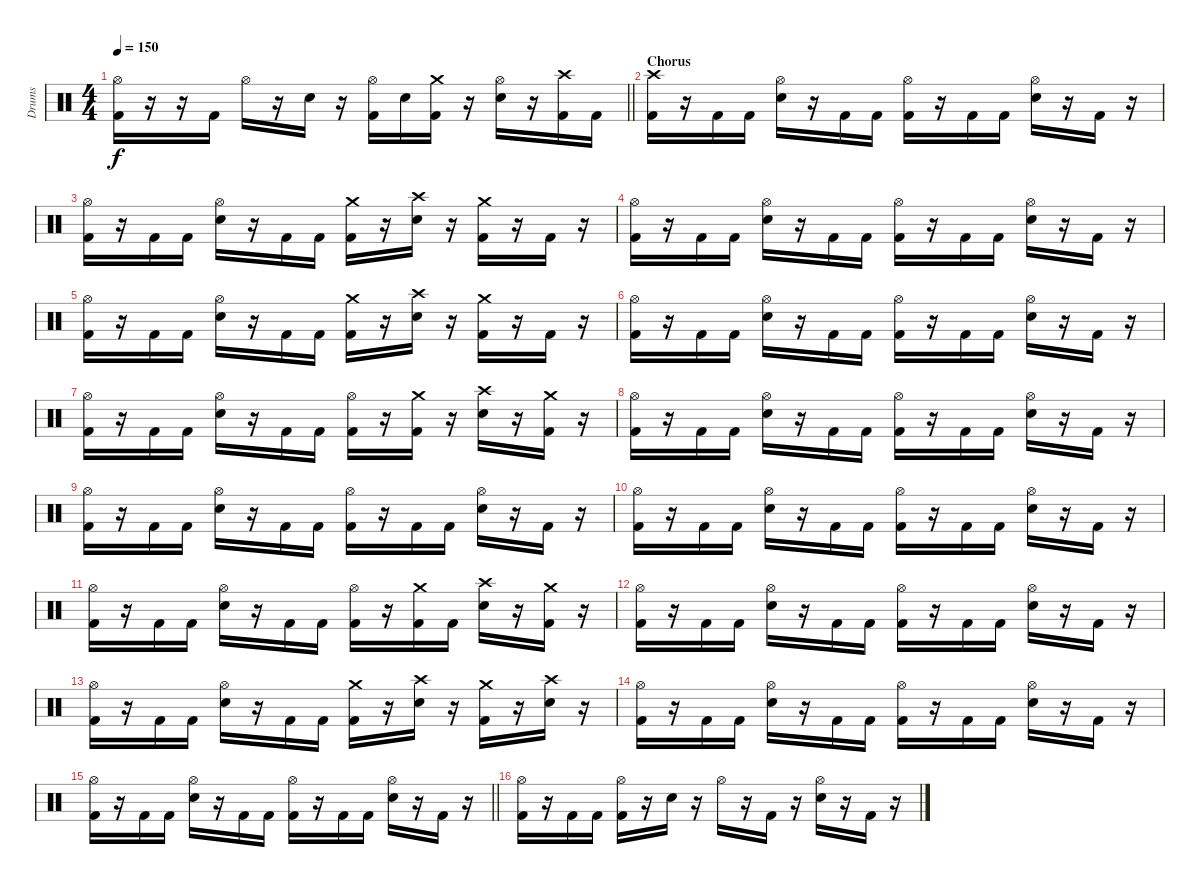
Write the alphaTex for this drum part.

\track ("Drums" "Drums") {instrument percussion}
\staff {score}
\articulation defaults
\ts (4 4)
\tempo 150
\clef neutral
\barLineRight lightlight
\ks c
("Hi-Hat (open)" "Kick (hit) 2").16{dy f} r.16 r.16 "Kick (hit) 2".16 "Hi-Hat (open)".16 r.16 "Snare (hit) 2".16 r.16 ("Hi-Hat (open)" "Kick (hit) 2").16 "Snare (hit) 2".16 ("Crash medium (hit)" "Kick (hit) 2").16 r.16 ("Hi-Hat (open)" "Snare (hit) 2").16 r.16 ("Crash high (hit)" "Kick (hit) 2").16 "Kick (hit) 2".16 |
\section ("" "Chorus")
("Crash high (hit)" "Kick (hit) 2").16 r.16 "Kick (hit) 2".16 "Kick (hit) 2".16 ("Hi-Hat (open)" "Snare (hit) 2").16 r.16 "Kick (hit) 2".16 "Kick (hit) 2".16 ("Hi-Hat (open)" "Kick (hit) 2").16 r.16 "Kick (hit) 2".16 "Kick (hit) 2".16 ("Hi-Hat (open)" "Snare (hit) 2").16 r.16 "Kick (hit) 2".16 r.16 |
("Hi-Hat (open)" "Kick (hit) 2").16 r.16 "Kick (hit) 2".16 "Kick (hit) 2".16 ("Hi-Hat (open)" "Snare (hit) 2").16 r.16 "Kick (hit) 2".16 "Kick (hit) 2".16 ("Crash medium (hit)" "Kick (hit) 2").16 r.16 ("Crash high (hit)" "Snare (hit) 2").16 r.16 ("Crash medium (hit)" "Kick (hit) 2").16 r.16 "Kick (hit) 2".16 r.16 |
("Hi-Hat (open)" "Kick (hit) 2").16 r.16 "Kick (hit) 2".16 "Kick (hit) 2".16 ("Hi-Hat (open)" "Snare (hit) 2").16 r.16 "Kick (hit) 2".16 "Kick (hit) 2".16 ("Hi-Hat (open)" "Kick (hit) 2").16 r.16 "Kick (hit) 2".16 "Kick (hit) 2".16 ("Hi-Hat (open)" "Snare (hit) 2").16 r.16 "Kick (hit) 2".16 r.16 |
("Hi-Hat (open)" "Kick (hit) 2").16 r.16 "Kick (hit) 2".16 "Kick (hit) 2".16 ("Hi-Hat (open)" "Snare (hit) 2").16 r.16 "Kick (hit) 2".16 "Kick (hit) 2".16 ("Crash medium (hit)" "Kick (hit) 2").16 r.16 ("Crash high (hit)" "Snare (hit) 2").16 r.16 ("Crash medium (hit)" "Kick (hit) 2").16 r.16 "Kick (hit) 2".16 r.16 |
("Hi-Hat (open)" "Kick (hit) 2").16 r.16 "Kick (hit) 2".16 "Kick (hit) 2".16 ("Hi-Hat (open)" "Snare (hit) 2").16 r.16 "Kick (hit) 2".16 "Kick (hit) 2".16 ("Hi-Hat (open)" "Kick (hit) 2").16 r.16 "Kick (hit) 2".16 "Kick (hit) 2".16 ("Hi-Hat (open)" "Snare (hit) 2").16 r.16 "Kick (hit) 2".16 r.16 |
("Hi-Hat (open)" "Kick (hit) 2").16 r.16 "Kick (hit) 2".16 "Kick (hit) 2".16 ("Hi-Hat (open)" "Snare (hit) 2").16 r.16 "Kick (hit) 2".16 "Kick (hit) 2".16 ("Hi-Hat (open)" "Kick (hit) 2").16 r.16 ("Crash medium (hit)" "Kick (hit) 2").16 r.16 ("Crash high (hit)" "Snare (hit) 2").16 r.16 ("Crash medium (hit)" "Kick (hit) 2").16 r.16 |
("Hi-Hat (open)" "Kick (hit) 2").16 r.16 "Kick (hit) 2".16 "Kick (hit) 2".16 ("Hi-Hat (open)" "Snare (hit) 2").16 r.16 "Kick (hit) 2".16 "Kick (hit) 2".16 ("Hi-Hat (open)" "Kick (hit) 2").16 r.16 "Kick (hit) 2".16 "Kick (hit) 2".16 ("Hi-Hat (open)" "Snare (hit) 2").16 r.16 "Kick (hit) 2".16 r.16 |
("Hi-Hat (open)" "Kick (hit) 2").16 r.16 "Kick (hit) 2".16 "Kick (hit) 2".16 ("Hi-Hat (open)" "Snare (hit) 2").16 r.16 "Kick (hit) 2".16 "Kick (hit) 2".16 ("Hi-Hat (open)" "Kick (hit) 2").16 r.16 "Kick (hit) 2".16 "Kick (hit) 2".16 ("Hi-Hat (open)" "Snare (hit) 2").16 r.16 "Kick (hit) 2".16 r.16 |
("Hi-Hat (open)" "Kick (hit) 2").16 r.16 "Kick (hit) 2".16 "Kick (hit) 2".16 ("Hi-Hat (open)" "Snare (hit) 2").16 r.16 "Kick (hit) 2".16 "Kick (hit) 2".16 ("Hi-Hat (open)" "Kick (hit) 2").16 r.16 "Kick (hit) 2".16 "Kick (hit) 2".16 ("Hi-Hat (open)" "Snare (hit) 2").16 r.16 "Kick (hit) 2".16 r.16 |
("Hi-Hat (open)" "Kick (hit) 2").16 r.16 "Kick (hit) 2".16 "Kick (hit) 2".16 ("Hi-Hat (open)" "Snare (hit) 2").16 r.16 "Kick (hit) 2".16 "Kick (hit) 2".16 ("Hi-Hat (open)" "Kick (hit) 2").16 r.16 ("Crash medium (hit)" "Kick (hit) 2").16 "Kick (hit) 2".16 ("Crash high (hit)" "Snare (hit) 2").16 r.16 ("Crash medium (hit)" "Kick (hit) 2").16 r.16 |
("Hi-Hat (open)" "Kick (hit) 2").16 r.16 "Kick (hit) 2".16 "Kick (hit) 2".16 ("Hi-Hat (open)" "Snare (hit) 2").16 r.16 "Kick (hit) 2".16 "Kick (hit) 2".16 ("Hi-Hat (open)" "Kick (hit) 2").16 r.16 "Kick (hit) 2".16 "Kick (hit) 2".16 ("Hi-Hat (open)" "Snare (hit) 2").16 r.16 "Kick (hit) 2".16 r.16 |
("Hi-Hat (open)" "Kick (hit) 2").16 r.16 "Kick (hit) 2".16 "Kick (hit) 2".16 ("Hi-Hat (open)" "Snare (hit) 2").16 r.16 "Kick (hit) 2".16 "Kick (hit) 2".16 ("Crash medium (hit)" "Kick (hit) 2").16 r.16 ("Crash high (hit)" "Snare (hit) 2").16 r.16 ("Crash medium (hit)" "Kick (hit) 2").16 r.16 ("Crash high (hit)" "Snare (hit) 2").16 r.16 |
("Hi-Hat (open)" "Kick (hit) 2").16 r.16 "Kick (hit) 2".16 "Kick (hit) 2".16 ("Hi-Hat (open)" "Snare (hit) 2").16 r.16 "Kick (hit) 2".16 "Kick (hit) 2".16 ("Hi-Hat (open)" "Kick (hit) 2").16 r.16 "Kick (hit) 2".16 "Kick (hit) 2".16 ("Hi-Hat (open)" "Snare (hit) 2").16 r.16 "Kick (hit) 2".16 r.16 |
\barLineRight lightlight
("Hi-Hat (open)" "Kick (hit) 2").16 r.16 "Kick (hit) 2".16 "Kick (hit) 2".16 ("Hi-Hat (open)" "Snare (hit) 2").16 r.16 "Kick (hit) 2".16 "Kick (hit) 2".16 ("Hi-Hat (open)" "Kick (hit) 2").16 r.16 "Kick (hit) 2".16 "Kick (hit) 2".16 ("Hi-Hat (open)" "Snare (hit) 2").16 r.16 "Kick (hit) 2".16 r.16 |
("Hi-Hat (open)" "Kick (hit) 2").16 r.16 "Kick (hit) 2".16 "Kick (hit) 2".16 ("Hi-Hat (open)" "Kick (hit) 2").16 r.16 "Snare (hit) 2".16 r.16 "Hi-Hat (open)".16 r.16 "Kick (hit) 2".16 r.16 ("Hi-Hat (open)" "Snare (hit) 2").16 r.16 "Kick (hit) 2".16 r.16
